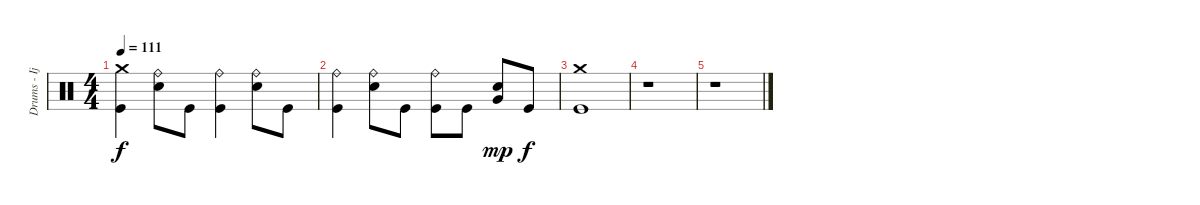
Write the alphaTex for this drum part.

\track ("Drums - Ijichi" "Drums - Ij") {instrument percussion}
\staff {score}
\articulation defaults
\ts (4 4)
\tempo 111
\clef neutral
\ks c
("Crash medium (hit)" "Kick (hit)").4{dy f} ("Ride (bell)" "Electric Snare (hit)").8 "Kick (hit)".8 ("Ride (bell)" "Kick (hit)").4 ("Ride (bell)" "Electric Snare (hit)").8 "Kick (hit)".8 |
("Ride (bell)" "Kick (hit)").4 ("Ride (bell)" "Electric Snare (hit)").8 "Kick (hit)".8 ("Ride (bell)" "Kick (hit)").8 "Kick (hit)".8 ("Electric Snare (hit)" "Very Low Tom (hit)").8{dy mp} "Kick (hit)".8{dy f} |
("Crash medium (hit)" "Kick (hit)").1 |
r.1 |
r.1
